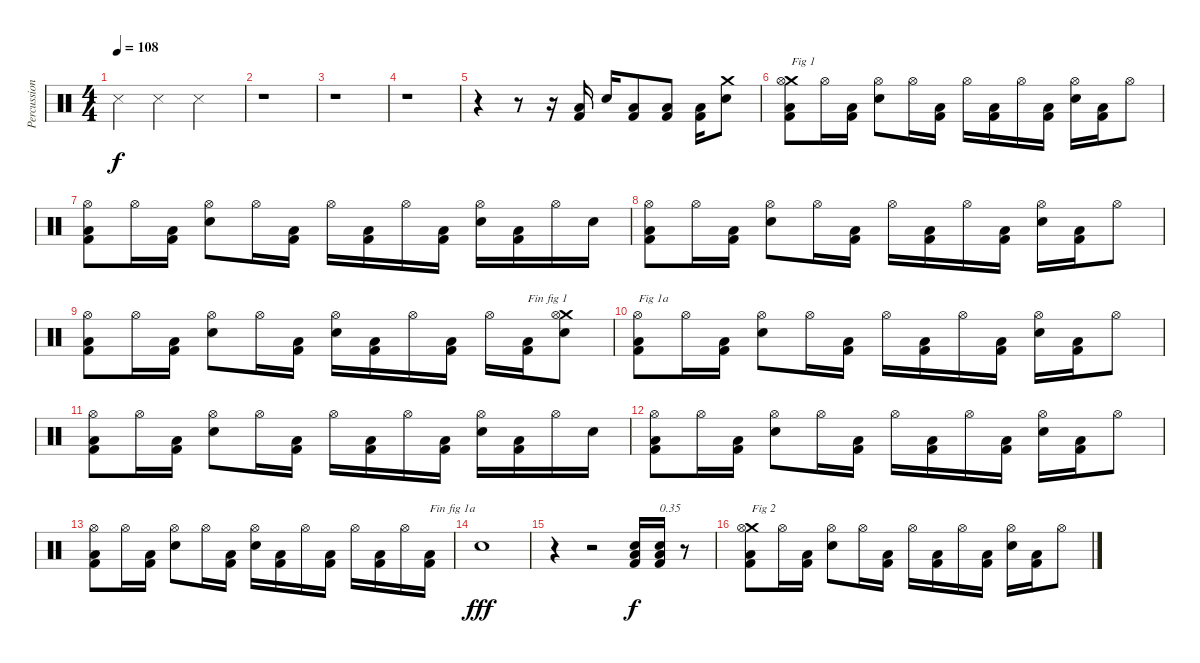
\track ("Percussions" "Percussion") {instrument percussion}
\staff {score}
\articulation defaults
\ts (4 4)
\tempo 108
\clef neutral
\ks c "Metronome (hit)".4{dy f} "Metronome (hit)".4 "Metronome (hit)".2
|
r.1 |
r.1 |
r.1 |
r.4 r.8 r.16 ("Kick (hit) 2" "Low Floor Tom (hit)").16 "Snare (hit) 2".16 ("Kick (hit) 2" "Low Floor Tom (hit)").8 ("Kick (hit) 2" "Low Floor Tom (hit)").8 ("Kick (hit) 2" "Low Floor Tom (hit)").16 ("Snare (hit) 2" "Crash medium (hit)").8 |
("Kick (hit) 2" "Low Floor Tom (hit)" "Crash medium (hit)" "Hi-Hat (open)").8{txt "Fig 1"} "Hi-Hat (open)".16 ("Kick (hit) 2" "Low Floor Tom (hit)").16 ("Snare (hit) 2" "Hi-Hat (open)").8 "Hi-Hat (open)".16 ("Kick (hit) 2" "Low Floor Tom (hit)").16 "Hi-Hat (open)".16 ("Kick (hit) 2" "Low Floor Tom (hit)").16 "Hi-Hat (open)".16 ("Kick (hit) 2" "Low Floor Tom (hit)").16 ("Snare (hit) 2" "Hi-Hat (open)").16 ("Kick (hit) 2" "Low Floor Tom (hit)").16 "Hi-Hat (open)".8 |
("Kick (hit) 2" "Low Floor Tom (hit)" "Hi-Hat (open)").8 "Hi-Hat (open)".16 ("Kick (hit) 2" "Low Floor Tom (hit)").16 ("Snare (hit) 2" "Hi-Hat (open)").8 "Hi-Hat (open)".16 ("Kick (hit) 2" "Low Floor Tom (hit)").16 "Hi-Hat (open)".16 ("Kick (hit) 2" "Low Floor Tom (hit)").16 "Hi-Hat (open)".16 ("Kick (hit) 2" "Low Floor Tom (hit)").16 ("Snare (hit) 2" "Hi-Hat (open)").16 ("Kick (hit) 2" "Low Floor Tom (hit)").16 "Hi-Hat (open)".16 "Snare (hit) 2".16 |
("Kick (hit) 2" "Low Floor Tom (hit)" "Hi-Hat (open)").8 "Hi-Hat (open)".16 ("Kick (hit) 2" "Low Floor Tom (hit)").16 ("Snare (hit) 2" "Hi-Hat (open)").8 "Hi-Hat (open)".16 ("Kick (hit) 2" "Low Floor Tom (hit)").16 "Hi-Hat (open)".16 ("Kick (hit) 2" "Low Floor Tom (hit)").16 "Hi-Hat (open)".16 ("Kick (hit) 2" "Low Floor Tom (hit)").16 ("Snare (hit) 2" "Hi-Hat (open)").16 ("Kick (hit) 2" "Low Floor Tom (hit)").16 "Hi-Hat (open)".8 |
("Kick (hit) 2" "Low Floor Tom (hit)" "Hi-Hat (open)").8 "Hi-Hat (open)".16 ("Kick (hit) 2" "Low Floor Tom (hit)").16 ("Snare (hit) 2" "Hi-Hat (open)").8 "Hi-Hat (open)".16 ("Kick (hit) 2" "Low Floor Tom (hit)").16 ("Snare (hit) 2" "Hi-Hat (open)").16 ("Kick (hit) 2" "Low Floor Tom (hit)").16 "Hi-Hat (open)".16 ("Kick (hit) 2" "Low Floor Tom (hit)").16 "Hi-Hat (open)".16 ("Kick (hit) 2" "Low Floor Tom (hit)").16{txt "Fin fig 1"} ("Snare (hit) 2" "Crash medium (hit)" "Hi-Hat (open)").8 |
("Kick (hit) 2" "Low Floor Tom (hit)" "Hi-Hat (open)").8{txt "Fig 1a"} "Hi-Hat (open)".16 ("Kick (hit) 2" "Low Floor Tom (hit)").16 ("Snare (hit) 2" "Hi-Hat (open)").8 "Hi-Hat (open)".16 ("Kick (hit) 2" "Low Floor Tom (hit)").16 "Hi-Hat (open)".16 ("Kick (hit) 2" "Low Floor Tom (hit)").16 "Hi-Hat (open)".16 ("Kick (hit) 2" "Low Floor Tom (hit)").16 ("Snare (hit) 2" "Hi-Hat (open)").16 ("Kick (hit) 2" "Low Floor Tom (hit)").16 "Hi-Hat (open)".8 |
("Kick (hit) 2" "Low Floor Tom (hit)" "Hi-Hat (open)").8 "Hi-Hat (open)".16 ("Kick (hit) 2" "Low Floor Tom (hit)").16 ("Snare (hit) 2" "Hi-Hat (open)").8 "Hi-Hat (open)".16 ("Kick (hit) 2" "Low Floor Tom (hit)").16 "Hi-Hat (open)".16 ("Kick (hit) 2" "Low Floor Tom (hit)").16 "Hi-Hat (open)".16 ("Kick (hit) 2" "Low Floor Tom (hit)").16 ("Snare (hit) 2" "Hi-Hat (open)").16 ("Kick (hit) 2" "Low Floor Tom (hit)").16 "Hi-Hat (open)".16 "Snare (hit) 2".16 |
("Kick (hit) 2" "Low Floor Tom (hit)" "Hi-Hat (open)").8 "Hi-Hat (open)".16 ("Kick (hit) 2" "Low Floor Tom (hit)").16 ("Snare (hit) 2" "Hi-Hat (open)").8 "Hi-Hat (open)".16 ("Kick (hit) 2" "Low Floor Tom (hit)").16 "Hi-Hat (open)".16 ("Kick (hit) 2" "Low Floor Tom (hit)").16 "Hi-Hat (open)".16 ("Kick (hit) 2" "Low Floor Tom (hit)").16 ("Snare (hit) 2" "Hi-Hat (open)").16 ("Kick (hit) 2" "Low Floor Tom (hit)").16 "Hi-Hat (open)".8 |
("Kick (hit) 2" "Low Floor Tom (hit)" "Hi-Hat (open)").8 "Hi-Hat (open)".16 ("Kick (hit) 2" "Low Floor Tom (hit)").16 ("Snare (hit) 2" "Hi-Hat (open)").8 "Hi-Hat (open)".16 ("Kick (hit) 2" "Low Floor Tom (hit)").16 ("Snare (hit) 2" "Hi-Hat (open)").16 ("Kick (hit) 2" "Low Floor Tom (hit)").16 "Hi-Hat (open)".16 ("Kick (hit) 2" "Low Floor Tom (hit)").16 "Hi-Hat (open)".16 ("Kick (hit) 2" "Low Floor Tom (hit)").16 "Hi-Hat (open)".16 ("Kick (hit) 2" "Low Floor Tom (hit)").16{txt "Fin fig 1a"} |
"Snare (hit) 2".1{dy fff} |
r.4 r.2 ("Kick (hit) 2" "Low Floor Tom (hit)" "Snare (hit) 2").16{dy f} ("Kick (hit) 2" "Low Floor Tom (hit)" "Snare (hit) 2").16{txt "0.35"} r.8 |
("Kick (hit) 2" "Low Floor Tom (hit)" "Crash medium (hit)" "Hi-Hat (open)").8{txt "Fig 2"} "Hi-Hat (open)".16 ("Kick (hit) 2" "Low Floor Tom (hit)").16 ("Snare (hit) 2" "Hi-Hat (open)").8 "Hi-Hat (open)".16 ("Kick (hit) 2" "Low Floor Tom (hit)").16 "Hi-Hat (open)".16 ("Kick (hit) 2" "Low Floor Tom (hit)").16 "Hi-Hat (open)".16 ("Kick (hit) 2" "Low Floor Tom (hit)").16 ("Snare (hit) 2" "Hi-Hat (open)").16 ("Kick (hit) 2" "Low Floor Tom (hit)").16 "Hi-Hat (open)".8
